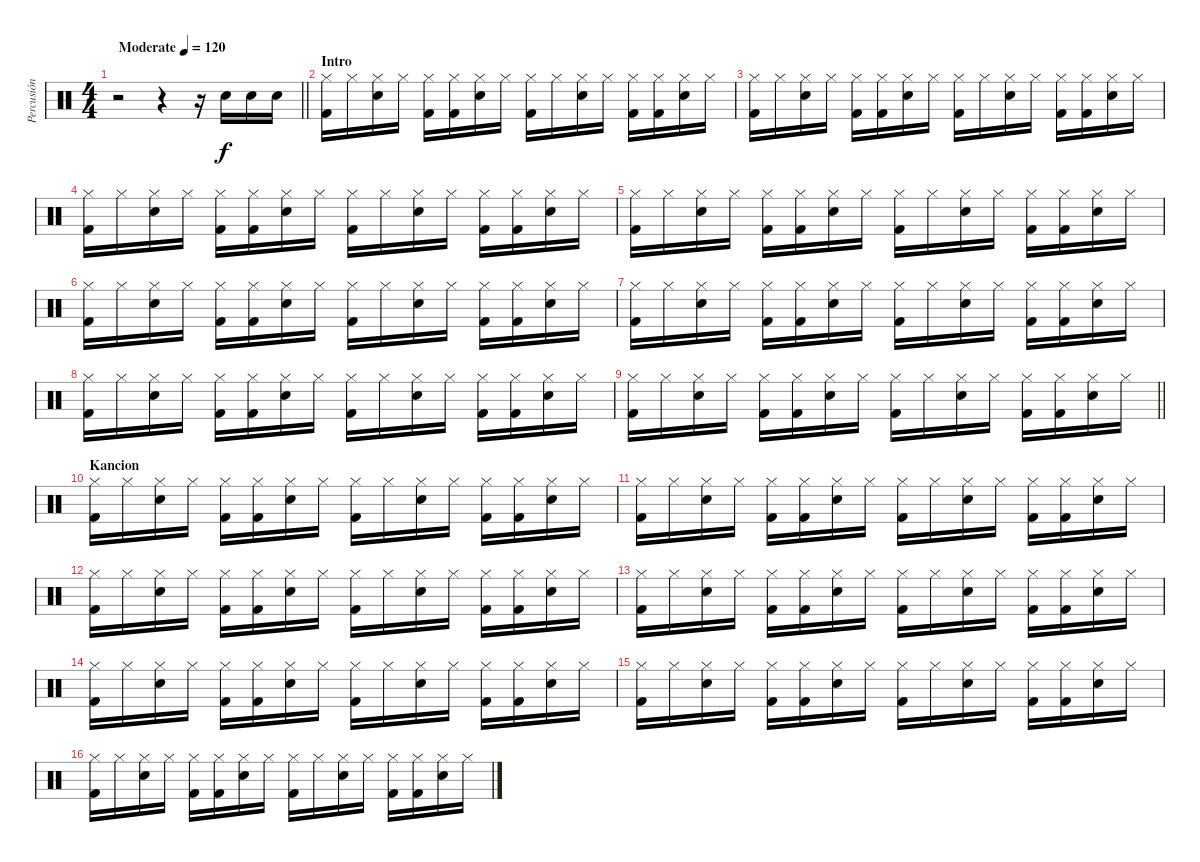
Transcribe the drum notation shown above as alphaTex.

\track ("Percusión" "Percusión") {instrument percussion}
\staff {score}
\articulation defaults
\ts (4 4)
\tempo (120 "Moderate")
\clef neutral
\barLineRight lightlight
\ks c
r.2{dy f} r.4 r.16 "Electric Snare (hit)".16 "Electric Snare (hit)".16 "Electric Snare (hit)".16 |
\section ("" "Intro")
("Kick (hit) 2" "Hi-Hat (closed)").16 "Hi-Hat (closed)".16 ("Electric Snare (hit)" "Hi-Hat (closed)").16 "Hi-Hat (closed)".16 ("Kick (hit) 2" "Hi-Hat (closed)").16 ("Kick (hit) 2" "Hi-Hat (closed)").16 ("Electric Snare (hit)" "Hi-Hat (closed)").16 "Hi-Hat (closed)".16 ("Kick (hit) 2" "Hi-Hat (closed)").16 "Hi-Hat (closed)".16 ("Electric Snare (hit)" "Hi-Hat (closed)").16 "Hi-Hat (closed)".16 ("Kick (hit) 2" "Hi-Hat (closed)").16 ("Kick (hit) 2" "Hi-Hat (closed)").16 ("Electric Snare (hit)" "Hi-Hat (closed)").16 "Hi-Hat (closed)".16 |
("Kick (hit) 2" "Hi-Hat (closed)").16 "Hi-Hat (closed)".16 ("Electric Snare (hit)" "Hi-Hat (closed)").16 "Hi-Hat (closed)".16 ("Kick (hit) 2" "Hi-Hat (closed)").16 ("Kick (hit) 2" "Hi-Hat (closed)").16 ("Electric Snare (hit)" "Hi-Hat (closed)").16 "Hi-Hat (closed)".16 ("Kick (hit) 2" "Hi-Hat (closed)").16 "Hi-Hat (closed)".16 ("Electric Snare (hit)" "Hi-Hat (closed)").16 "Hi-Hat (closed)".16 ("Kick (hit) 2" "Hi-Hat (closed)").16 ("Kick (hit) 2" "Hi-Hat (closed)").16 ("Electric Snare (hit)" "Hi-Hat (closed)").16 "Hi-Hat (closed)".16 |
("Kick (hit) 2" "Hi-Hat (closed)").16 "Hi-Hat (closed)".16 ("Electric Snare (hit)" "Hi-Hat (closed)").16 "Hi-Hat (closed)".16 ("Kick (hit) 2" "Hi-Hat (closed)").16 ("Kick (hit) 2" "Hi-Hat (closed)").16 ("Electric Snare (hit)" "Hi-Hat (closed)").16 "Hi-Hat (closed)".16 ("Kick (hit) 2" "Hi-Hat (closed)").16 "Hi-Hat (closed)".16 ("Electric Snare (hit)" "Hi-Hat (closed)").16 "Hi-Hat (closed)".16 ("Kick (hit) 2" "Hi-Hat (closed)").16 ("Kick (hit) 2" "Hi-Hat (closed)").16 ("Electric Snare (hit)" "Hi-Hat (closed)").16 "Hi-Hat (closed)".16 |
("Kick (hit) 2" "Hi-Hat (closed)").16 "Hi-Hat (closed)".16 ("Electric Snare (hit)" "Hi-Hat (closed)").16 "Hi-Hat (closed)".16 ("Kick (hit) 2" "Hi-Hat (closed)").16 ("Kick (hit) 2" "Hi-Hat (closed)").16 ("Electric Snare (hit)" "Hi-Hat (closed)").16 "Hi-Hat (closed)".16 ("Kick (hit) 2" "Hi-Hat (closed)").16 "Hi-Hat (closed)".16 ("Electric Snare (hit)" "Hi-Hat (closed)").16 "Hi-Hat (closed)".16 ("Kick (hit) 2" "Hi-Hat (closed)").16 ("Kick (hit) 2" "Hi-Hat (closed)").16 ("Electric Snare (hit)" "Hi-Hat (closed)").16 "Hi-Hat (closed)".16 |
("Kick (hit) 2" "Hi-Hat (closed)").16 "Hi-Hat (closed)".16 ("Electric Snare (hit)" "Hi-Hat (closed)").16 "Hi-Hat (closed)".16 ("Kick (hit) 2" "Hi-Hat (closed)").16 ("Kick (hit) 2" "Hi-Hat (closed)").16 ("Electric Snare (hit)" "Hi-Hat (closed)").16 "Hi-Hat (closed)".16 ("Kick (hit) 2" "Hi-Hat (closed)").16 "Hi-Hat (closed)".16 ("Electric Snare (hit)" "Hi-Hat (closed)").16 "Hi-Hat (closed)".16 ("Kick (hit) 2" "Hi-Hat (closed)").16 ("Kick (hit) 2" "Hi-Hat (closed)").16 ("Electric Snare (hit)" "Hi-Hat (closed)").16 "Hi-Hat (closed)".16 |
("Kick (hit) 2" "Hi-Hat (closed)").16 "Hi-Hat (closed)".16 ("Electric Snare (hit)" "Hi-Hat (closed)").16 "Hi-Hat (closed)".16 ("Kick (hit) 2" "Hi-Hat (closed)").16 ("Kick (hit) 2" "Hi-Hat (closed)").16 ("Electric Snare (hit)" "Hi-Hat (closed)").16 "Hi-Hat (closed)".16 ("Kick (hit) 2" "Hi-Hat (closed)").16 "Hi-Hat (closed)".16 ("Electric Snare (hit)" "Hi-Hat (closed)").16 "Hi-Hat (closed)".16 ("Kick (hit) 2" "Hi-Hat (closed)").16 ("Kick (hit) 2" "Hi-Hat (closed)").16 ("Electric Snare (hit)" "Hi-Hat (closed)").16 "Hi-Hat (closed)".16 |
("Kick (hit) 2" "Hi-Hat (closed)").16 "Hi-Hat (closed)".16 ("Electric Snare (hit)" "Hi-Hat (closed)").16 "Hi-Hat (closed)".16 ("Kick (hit) 2" "Hi-Hat (closed)").16 ("Kick (hit) 2" "Hi-Hat (closed)").16 ("Electric Snare (hit)" "Hi-Hat (closed)").16 "Hi-Hat (closed)".16 ("Kick (hit) 2" "Hi-Hat (closed)").16 "Hi-Hat (closed)".16 ("Electric Snare (hit)" "Hi-Hat (closed)").16 "Hi-Hat (closed)".16 ("Kick (hit) 2" "Hi-Hat (closed)").16 ("Kick (hit) 2" "Hi-Hat (closed)").16 ("Electric Snare (hit)" "Hi-Hat (closed)").16 "Hi-Hat (closed)".16 |
\barLineRight lightlight
("Kick (hit) 2" "Hi-Hat (closed)").16 "Hi-Hat (closed)".16 ("Electric Snare (hit)" "Hi-Hat (closed)").16 "Hi-Hat (closed)".16 ("Kick (hit) 2" "Hi-Hat (closed)").16 ("Kick (hit) 2" "Hi-Hat (closed)").16 ("Electric Snare (hit)" "Hi-Hat (closed)").16 "Hi-Hat (closed)".16 ("Kick (hit) 2" "Hi-Hat (closed)").16 "Hi-Hat (closed)".16 ("Electric Snare (hit)" "Hi-Hat (closed)").16 "Hi-Hat (closed)".16 ("Kick (hit) 2" "Hi-Hat (closed)").16 ("Kick (hit) 2" "Hi-Hat (closed)").16 ("Electric Snare (hit)" "Hi-Hat (closed)").16 "Hi-Hat (closed)".16 |
\section ("" "Kancion")
("Kick (hit) 2" "Hi-Hat (closed)").16 "Hi-Hat (closed)".16 ("Electric Snare (hit)" "Hi-Hat (closed)").16 "Hi-Hat (closed)".16 ("Kick (hit) 2" "Hi-Hat (closed)").16 ("Kick (hit) 2" "Hi-Hat (closed)").16 ("Electric Snare (hit)" "Hi-Hat (closed)").16 "Hi-Hat (closed)".16 ("Kick (hit) 2" "Hi-Hat (closed)").16 "Hi-Hat (closed)".16 ("Electric Snare (hit)" "Hi-Hat (closed)").16 "Hi-Hat (closed)".16 ("Kick (hit) 2" "Hi-Hat (closed)").16 ("Kick (hit) 2" "Hi-Hat (closed)").16 ("Electric Snare (hit)" "Hi-Hat (closed)").16 "Hi-Hat (closed)".16 |
("Kick (hit) 2" "Hi-Hat (closed)").16 "Hi-Hat (closed)".16 ("Electric Snare (hit)" "Hi-Hat (closed)").16 "Hi-Hat (closed)".16 ("Kick (hit) 2" "Hi-Hat (closed)").16 ("Kick (hit) 2" "Hi-Hat (closed)").16 ("Electric Snare (hit)" "Hi-Hat (closed)").16 "Hi-Hat (closed)".16 ("Kick (hit) 2" "Hi-Hat (closed)").16 "Hi-Hat (closed)".16 ("Electric Snare (hit)" "Hi-Hat (closed)").16 "Hi-Hat (closed)".16 ("Kick (hit) 2" "Hi-Hat (closed)").16 ("Kick (hit) 2" "Hi-Hat (closed)").16 ("Electric Snare (hit)" "Hi-Hat (closed)").16 "Hi-Hat (closed)".16 |
("Kick (hit) 2" "Hi-Hat (closed)").16 "Hi-Hat (closed)".16 ("Electric Snare (hit)" "Hi-Hat (closed)").16 "Hi-Hat (closed)".16 ("Kick (hit) 2" "Hi-Hat (closed)").16 ("Kick (hit) 2" "Hi-Hat (closed)").16 ("Electric Snare (hit)" "Hi-Hat (closed)").16 "Hi-Hat (closed)".16 ("Kick (hit) 2" "Hi-Hat (closed)").16 "Hi-Hat (closed)".16 ("Electric Snare (hit)" "Hi-Hat (closed)").16 "Hi-Hat (closed)".16 ("Kick (hit) 2" "Hi-Hat (closed)").16 ("Kick (hit) 2" "Hi-Hat (closed)").16 ("Electric Snare (hit)" "Hi-Hat (closed)").16 "Hi-Hat (closed)".16 |
("Kick (hit) 2" "Hi-Hat (closed)").16 "Hi-Hat (closed)".16 ("Electric Snare (hit)" "Hi-Hat (closed)").16 "Hi-Hat (closed)".16 ("Kick (hit) 2" "Hi-Hat (closed)").16 ("Kick (hit) 2" "Hi-Hat (closed)").16 ("Electric Snare (hit)" "Hi-Hat (closed)").16 "Hi-Hat (closed)".16 ("Kick (hit) 2" "Hi-Hat (closed)").16 "Hi-Hat (closed)".16 ("Electric Snare (hit)" "Hi-Hat (closed)").16 "Hi-Hat (closed)".16 ("Kick (hit) 2" "Hi-Hat (closed)").16 ("Kick (hit) 2" "Hi-Hat (closed)").16 ("Electric Snare (hit)" "Hi-Hat (closed)").16 "Hi-Hat (closed)".16 |
("Kick (hit) 2" "Hi-Hat (closed)").16 "Hi-Hat (closed)".16 ("Electric Snare (hit)" "Hi-Hat (closed)").16 "Hi-Hat (closed)".16 ("Kick (hit) 2" "Hi-Hat (closed)").16 ("Kick (hit) 2" "Hi-Hat (closed)").16 ("Electric Snare (hit)" "Hi-Hat (closed)").16 "Hi-Hat (closed)".16 ("Kick (hit) 2" "Hi-Hat (closed)").16 "Hi-Hat (closed)".16 ("Electric Snare (hit)" "Hi-Hat (closed)").16 "Hi-Hat (closed)".16 ("Kick (hit) 2" "Hi-Hat (closed)").16 ("Kick (hit) 2" "Hi-Hat (closed)").16 ("Electric Snare (hit)" "Hi-Hat (closed)").16 "Hi-Hat (closed)".16 |
("Kick (hit) 2" "Hi-Hat (closed)").16 "Hi-Hat (closed)".16 ("Electric Snare (hit)" "Hi-Hat (closed)").16 "Hi-Hat (closed)".16 ("Kick (hit) 2" "Hi-Hat (closed)").16 ("Kick (hit) 2" "Hi-Hat (closed)").16 ("Electric Snare (hit)" "Hi-Hat (closed)").16 "Hi-Hat (closed)".16 ("Kick (hit) 2" "Hi-Hat (closed)").16 "Hi-Hat (closed)".16 ("Electric Snare (hit)" "Hi-Hat (closed)").16 "Hi-Hat (closed)".16 ("Kick (hit) 2" "Hi-Hat (closed)").16 ("Kick (hit) 2" "Hi-Hat (closed)").16 ("Electric Snare (hit)" "Hi-Hat (closed)").16 "Hi-Hat (closed)".16 |
("Kick (hit) 2" "Hi-Hat (closed)").16 "Hi-Hat (closed)".16 ("Electric Snare (hit)" "Hi-Hat (closed)").16 "Hi-Hat (closed)".16 ("Kick (hit) 2" "Hi-Hat (closed)").16 ("Kick (hit) 2" "Hi-Hat (closed)").16 ("Electric Snare (hit)" "Hi-Hat (closed)").16 "Hi-Hat (closed)".16 ("Kick (hit) 2" "Hi-Hat (closed)").16 "Hi-Hat (closed)".16 ("Electric Snare (hit)" "Hi-Hat (closed)").16 "Hi-Hat (closed)".16 ("Kick (hit) 2" "Hi-Hat (closed)").16 ("Kick (hit) 2" "Hi-Hat (closed)").16 ("Electric Snare (hit)" "Hi-Hat (closed)").16 "Hi-Hat (closed)".16
